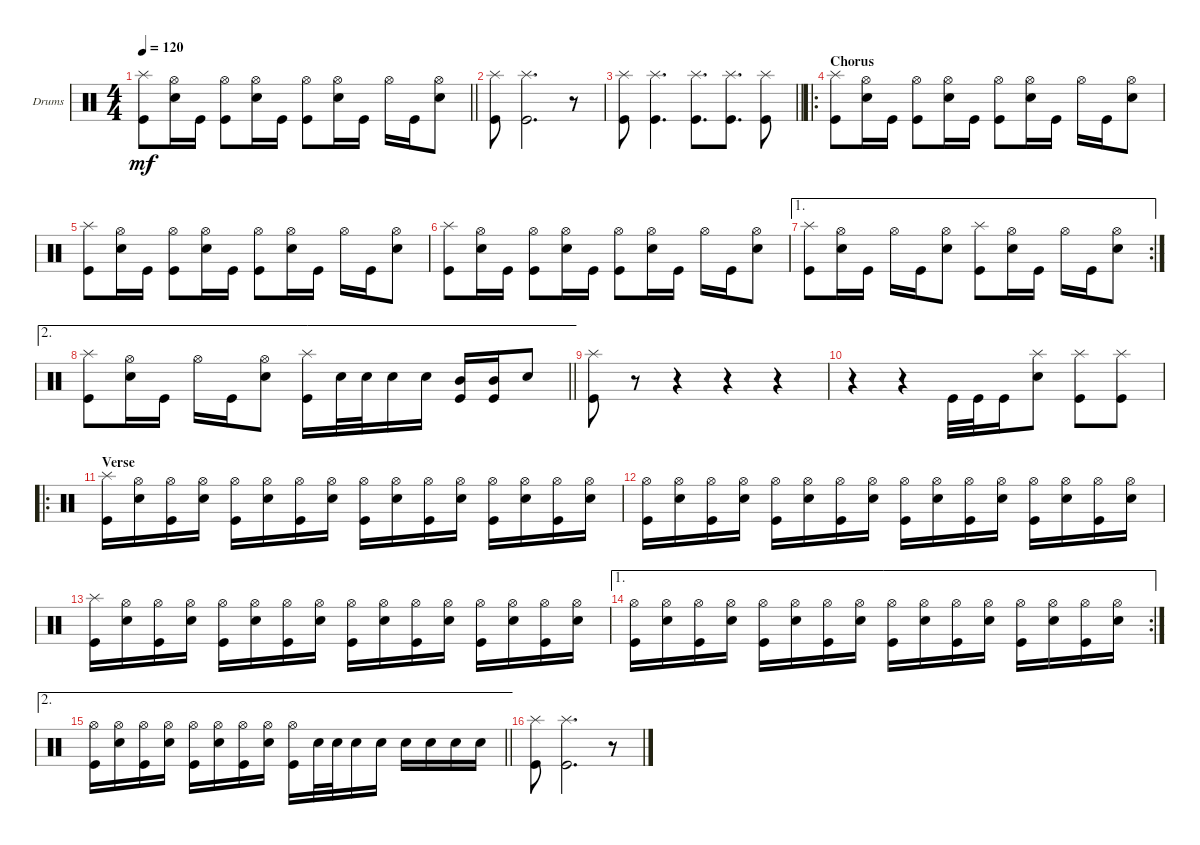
\defaultSystemsLayout 4
\bracketExtendMode groupsimilarinstruments
\firstSystemTrackNameOrientation horizontal
\otherSystemsTrackNameOrientation horizontal
\track ("Drumkit" "Drums") {instrument percussion}
\staff {score}
\articulation defaults
\ts (4 4)
\tempo 120
\clef neutral
\barLineRight lightlight
\ks c
("Kick (hit)" "Splash (hit)").8{dy mf} ("Snare (hit) 2" "Hi-Hat (open)").16 "Kick (hit)".16 ("Kick (hit)" "Hi-Hat (open)").8 ("Snare (hit) 2" "Hi-Hat (open)").16 "Kick (hit)".16 ("Kick (hit)" "Hi-Hat (open)").8 ("Snare (hit) 2" "Hi-Hat (open)").16 "Kick (hit)".16 "Hi-Hat (open)".16 "Kick (hit)".16 ("Snare (hit) 2" "Hi-Hat (open)").8 |
("Kick (hit)" "Splash (hit)").8 ("Kick (hit)" "Splash (hit)").2{d} r.8 |
\barLineRight lightlight
("Kick (hit)" "Splash (hit)").8 ("Kick (hit)" "Splash (hit)").4{d} ("Kick (hit)" "Splash (hit)").8{d} ("Kick (hit)" "Splash (hit)").8{d} ("Kick (hit)" "Splash (hit)").8 |
\ro
\section ("" "Chorus")
("Kick (hit)" "Splash (hit)").8 ("Snare (hit) 2" "Hi-Hat (open)").16 "Kick (hit)".16 ("Kick (hit)" "Hi-Hat (open)").8 ("Snare (hit) 2" "Hi-Hat (open)").16 "Kick (hit)".16 ("Kick (hit)" "Hi-Hat (open)").8 ("Snare (hit) 2" "Hi-Hat (open)").16 "Kick (hit)".16 "Hi-Hat (open)".16 "Kick (hit)".16 ("Snare (hit) 2" "Hi-Hat (open)").8 |
("Kick (hit)" "Splash (hit)").8 ("Snare (hit) 2" "Hi-Hat (open)").16 "Kick (hit)".16 ("Kick (hit)" "Hi-Hat (open)").8 ("Snare (hit) 2" "Hi-Hat (open)").16 "Kick (hit)".16 ("Kick (hit)" "Hi-Hat (open)").8 ("Snare (hit) 2" "Hi-Hat (open)").16 "Kick (hit)".16 "Hi-Hat (open)".16 "Kick (hit)".16 ("Snare (hit) 2" "Hi-Hat (open)").8 |
("Kick (hit)" "Splash (hit)").8 ("Snare (hit) 2" "Hi-Hat (open)").16 "Kick (hit)".16 ("Kick (hit)" "Hi-Hat (open)").8 ("Snare (hit) 2" "Hi-Hat (open)").16 "Kick (hit)".16 ("Kick (hit)" "Hi-Hat (open)").8 ("Snare (hit) 2" "Hi-Hat (open)").16 "Kick (hit)".16 "Hi-Hat (open)".16 "Kick (hit)".16 ("Snare (hit) 2" "Hi-Hat (open)").8 |
\ae 1
\rc 2
("Kick (hit)" "Splash (hit)").8 ("Snare (hit) 2" "Hi-Hat (open)").16 "Kick (hit)".16 "Hi-Hat (open)".16 "Kick (hit)".16 ("Snare (hit) 2" "Hi-Hat (open)").8 ("Kick (hit)" "Splash (hit)").8 ("Snare (hit) 2" "Hi-Hat (open)").16 "Kick (hit)".16 "Hi-Hat (open)".16 "Kick (hit)".16 ("Snare (hit) 2" "Hi-Hat (open)").8 |
\ae 2
\barLineRight lightlight
("Kick (hit)" "Splash (hit)").8 ("Snare (hit) 2" "Hi-Hat (open)").16 "Kick (hit)".16 "Hi-Hat (open)".16 "Kick (hit)".16 ("Snare (hit) 2" "Hi-Hat (open)").8 ("Kick (hit)" "Splash (hit)").16 "Snare (hit) 2".32 "Snare (hit) 2".32 "Snare (hit) 2".16 "Snare (hit) 2".16 ("Kick (hit)" "Mid Tom (hit)").16 ("Kick (hit)" "Mid Tom (hit)").16 "Snare (hit) 2".8 |
("Kick (hit)" "Splash (hit)").8 r.8 r.4 r.4 r.4 |
r.4 r.4 "Kick (hit)".32 "Kick (hit)".32 "Kick (hit)".16 ("Snare (hit) 2" "Splash (hit)").8 ("Kick (hit)" "Splash (hit)").8 ("Kick (hit)" "Splash (hit)").8 |
\ro
\section ("" "Verse")
("Kick (hit)" "Splash (hit)").16 ("Snare (hit) 2" "Hi-Hat (open)").16 ("Kick (hit)" "Hi-Hat (open)").16 ("Snare (hit) 2" "Hi-Hat (open)").16 ("Kick (hit)" "Hi-Hat (open)").16 ("Snare (hit) 2" "Hi-Hat (open)").16 ("Kick (hit)" "Hi-Hat (open)").16 ("Snare (hit) 2" "Hi-Hat (open)").16 ("Kick (hit)" "Hi-Hat (open)").16 ("Snare (hit) 2" "Hi-Hat (open)").16 ("Kick (hit)" "Hi-Hat (open)").16 ("Snare (hit) 2" "Hi-Hat (open)").16 ("Kick (hit)" "Hi-Hat (open)").16 ("Snare (hit) 2" "Hi-Hat (open)").16 ("Kick (hit)" "Hi-Hat (open)").16 ("Snare (hit) 2" "Hi-Hat (open)").16 |
("Kick (hit)" "Hi-Hat (open)").16 ("Snare (hit) 2" "Hi-Hat (open)").16 ("Kick (hit)" "Hi-Hat (open)").16 ("Snare (hit) 2" "Hi-Hat (open)").16 ("Kick (hit)" "Hi-Hat (open)").16 ("Snare (hit) 2" "Hi-Hat (open)").16 ("Kick (hit)" "Hi-Hat (open)").16 ("Snare (hit) 2" "Hi-Hat (open)").16 ("Kick (hit)" "Hi-Hat (open)").16 ("Snare (hit) 2" "Hi-Hat (open)").16 ("Kick (hit)" "Hi-Hat (open)").16 ("Snare (hit) 2" "Hi-Hat (open)").16 ("Kick (hit)" "Hi-Hat (open)").16 ("Snare (hit) 2" "Hi-Hat (open)").16 ("Kick (hit)" "Hi-Hat (open)").16 ("Snare (hit) 2" "Hi-Hat (open)").16 |
("Kick (hit)" "Splash (hit)").16 ("Snare (hit) 2" "Hi-Hat (open)").16 ("Kick (hit)" "Hi-Hat (open)").16 ("Snare (hit) 2" "Hi-Hat (open)").16 ("Kick (hit)" "Hi-Hat (open)").16 ("Snare (hit) 2" "Hi-Hat (open)").16 ("Kick (hit)" "Hi-Hat (open)").16 ("Snare (hit) 2" "Hi-Hat (open)").16 ("Kick (hit)" "Hi-Hat (open)").16 ("Snare (hit) 2" "Hi-Hat (open)").16 ("Kick (hit)" "Hi-Hat (open)").16 ("Snare (hit) 2" "Hi-Hat (open)").16 ("Kick (hit)" "Hi-Hat (open)").16 ("Snare (hit) 2" "Hi-Hat (open)").16 ("Kick (hit)" "Hi-Hat (open)").16 ("Snare (hit) 2" "Hi-Hat (open)").16 |
\ae 1
\rc 2
("Kick (hit)" "Hi-Hat (open)").16 ("Snare (hit) 2" "Hi-Hat (open)").16 ("Kick (hit)" "Hi-Hat (open)").16 ("Snare (hit) 2" "Hi-Hat (open)").16 ("Kick (hit)" "Hi-Hat (open)").16 ("Snare (hit) 2" "Hi-Hat (open)").16 ("Kick (hit)" "Hi-Hat (open)").16 ("Snare (hit) 2" "Hi-Hat (open)").16 ("Kick (hit)" "Hi-Hat (open)").16 ("Snare (hit) 2" "Hi-Hat (open)").16 ("Kick (hit)" "Hi-Hat (open)").16 ("Snare (hit) 2" "Hi-Hat (open)").16 ("Kick (hit)" "Hi-Hat (open)").16 ("Snare (hit) 2" "Hi-Hat (open)").16 ("Kick (hit)" "Hi-Hat (open)").16 ("Snare (hit) 2" "Hi-Hat (open)").16 |
\ae 2
\barLineRight lightlight
("Kick (hit)" "Hi-Hat (open)").16 ("Snare (hit) 2" "Hi-Hat (open)").16 ("Kick (hit)" "Hi-Hat (open)").16 ("Snare (hit) 2" "Hi-Hat (open)").16 ("Kick (hit)" "Hi-Hat (open)").16 ("Snare (hit) 2" "Hi-Hat (open)").16 ("Kick (hit)" "Hi-Hat (open)").16 ("Snare (hit) 2" "Hi-Hat (open)").16 ("Kick (hit)" "Hi-Hat (open)").16 "Snare (hit) 2".32 "Snare (hit) 2".32 "Snare (hit) 2".16 "Snare (hit) 2".16 "Snare (hit) 2".16 "Snare (hit) 2".16 "Snare (hit) 2".16 "Snare (hit) 2".16 |
("Kick (hit)" "Splash (hit)").8 ("Kick (hit)" "Splash (hit)").2{d} r.8
